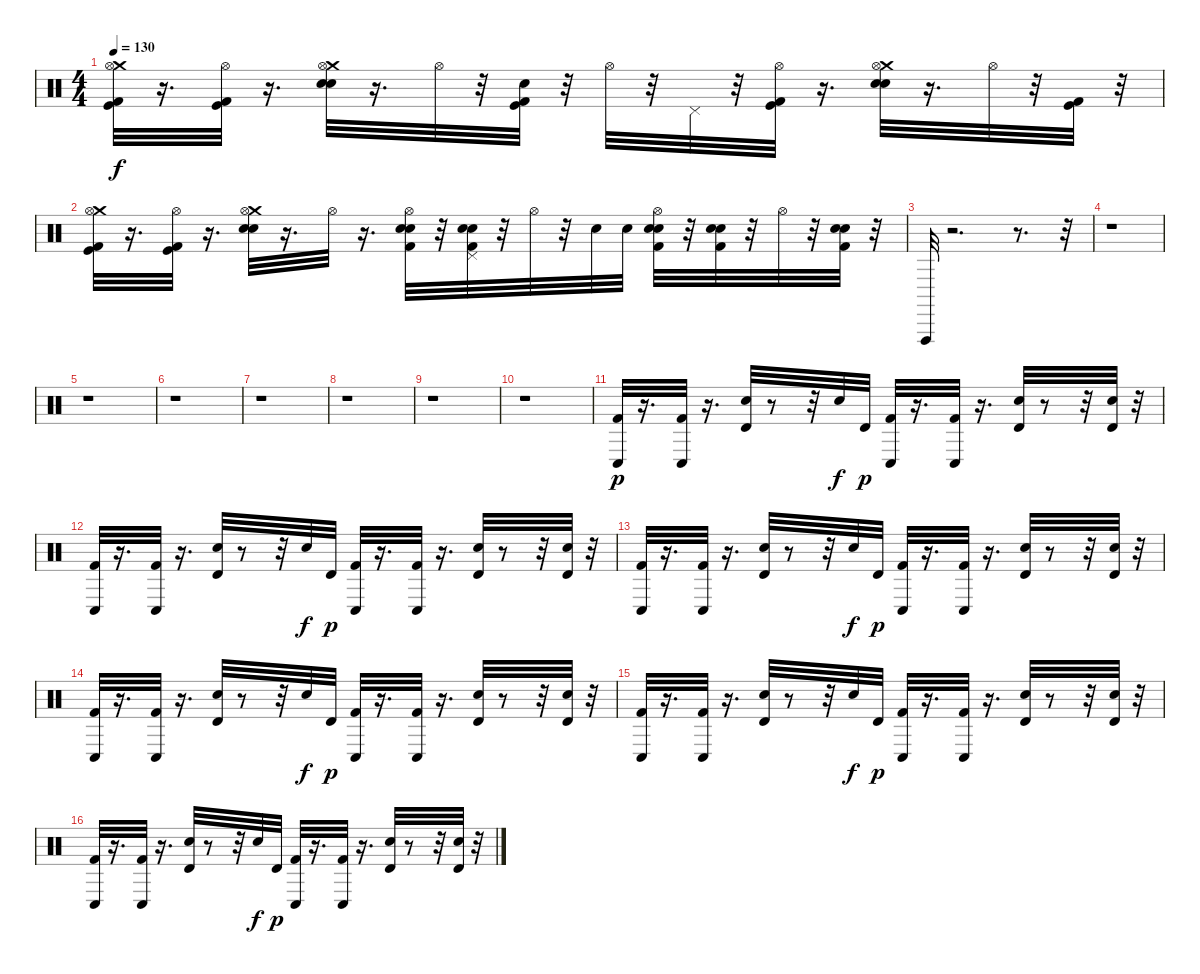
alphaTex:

\track "" {instrument percussion}
\staff {score}
\articulation defaults
\ts (4 4)
\tempo 130
\clef neutral
\ks c
("Kick (hit) 2" "Kick (hit)" "Crash medium (hit)" "Hi-Hat (open)").32{dy f} r.16{d} ("Kick (hit) 2" "Kick (hit)" "Hi-Hat (open)").32 r.16{d} ("Snare (hit) 2" "Electric Snare (hit)" "Crash medium (hit)" "Hi-Hat (open)").32 r.16{d} "Hi-Hat (open)".32 r.32 ("Kick (hit) 2" "Kick (hit)" "Electric Snare (hit)").32 r.32 "Hi-Hat (open)".32 r.32 "Pedal Hi-Hat (hit)".32 r.32 ("Kick (hit) 2" "Kick (hit)" "Hi-Hat (open)").32 r.16{d} ("Snare (hit) 2" "Electric Snare (hit)" "Crash medium (hit)" "Hi-Hat (open)").32 r.16{d} "Hi-Hat (open)".32 r.32 ("Kick (hit) 2" "Kick (hit)").32 r.32 |
("Kick (hit) 2" "Kick (hit)" "Crash medium (hit)" "Hi-Hat (open)").32 r.16{d} ("Kick (hit) 2" "Kick (hit)" "Hi-Hat (open)").32 r.16{d} ("Snare (hit) 2" "Electric Snare (hit)" "Crash medium (hit)" "Hi-Hat (open)").32 r.16{d} "Hi-Hat (open)".32 r.16{d} ("Hi-Hat (open)" "Electric Snare (hit)" "Snare (hit) 2" "Kick (hit) 2").32 r.32 ("Electric Snare (hit)" "Snare (hit) 2" "Kick (hit) 2" "Pedal Hi-Hat (hit)").32 r.32 "Hi-Hat (open)".32 r.32 "Electric Snare (hit)".32 "Electric Snare (hit)".32 ("Hi-Hat (open)" "Snare (hit) 2" "Electric Snare (hit)" "Kick (hit) 2").32 r.32 ("Electric Snare (hit)" "Snare (hit) 2" "Kick (hit) 2").32 r.32 "Hi-Hat (open)".32 r.32 ("Electric Snare (hit)" "Snare (hit) 2" "Kick (hit) 2").32 r.32 |
"Vibraslap (hit)".32 r.2{d} r.8{d} r.32 |
r.1 |
r.1 |
r.1 |
r.1 |
r.1 |
r.1 |
r.1 |
("Kick (hit) 2" "Conga low (hit)").32{dy p} r.16{d} ("Kick (hit) 2" "Conga low (hit)").32 r.16{d} ("Snare (hit) 2" "Timbale high (hit)").32 r.8 r.32 "Snare (hit) 2".32{dy f} "Timbale high (hit)".32{dy p} ("Kick (hit) 2" "Conga low (hit)").32 r.16{d} ("Kick (hit) 2" "Conga low (hit)").32 r.16{d} ("Snare (hit) 2" "Timbale high (hit)").32 r.8 r.32 ("Snare (hit) 2" "Timbale high (hit)").32 r.32 |
("Kick (hit) 2" "Conga low (hit)").32 r.16{d} ("Kick (hit) 2" "Conga low (hit)").32 r.16{d} ("Snare (hit) 2" "Timbale high (hit)").32 r.8 r.32 "Snare (hit) 2".32{dy f} "Timbale high (hit)".32{dy p} ("Kick (hit) 2" "Conga low (hit)").32 r.16{d} ("Kick (hit) 2" "Conga low (hit)").32 r.16{d} ("Snare (hit) 2" "Timbale high (hit)").32 r.8 r.32 ("Snare (hit) 2" "Timbale high (hit)").32 r.32 |
("Kick (hit) 2" "Conga low (hit)").32 r.16{d} ("Kick (hit) 2" "Conga low (hit)").32 r.16{d} ("Snare (hit) 2" "Timbale high (hit)").32 r.8 r.32 "Snare (hit) 2".32{dy f} "Timbale high (hit)".32{dy p} ("Kick (hit) 2" "Conga low (hit)").32 r.16{d} ("Kick (hit) 2" "Conga low (hit)").32 r.16{d} ("Snare (hit) 2" "Timbale high (hit)").32 r.8 r.32 ("Snare (hit) 2" "Timbale high (hit)").32 r.32 |
("Kick (hit) 2" "Conga low (hit)").32 r.16{d} ("Kick (hit) 2" "Conga low (hit)").32 r.16{d} ("Snare (hit) 2" "Timbale high (hit)").32 r.8 r.32 "Snare (hit) 2".32{dy f} "Timbale high (hit)".32{dy p} ("Kick (hit) 2" "Conga low (hit)").32 r.16{d} ("Kick (hit) 2" "Conga low (hit)").32 r.16{d} ("Snare (hit) 2" "Timbale high (hit)").32 r.8 r.32 ("Snare (hit) 2" "Timbale high (hit)").32 r.32 |
("Kick (hit) 2" "Conga low (hit)").32 r.16{d} ("Kick (hit) 2" "Conga low (hit)").32 r.16{d} ("Snare (hit) 2" "Timbale high (hit)").32 r.8 r.32 "Snare (hit) 2".32{dy f} "Timbale high (hit)".32{dy p} ("Kick (hit) 2" "Conga low (hit)").32 r.16{d} ("Kick (hit) 2" "Conga low (hit)").32 r.16{d} ("Snare (hit) 2" "Timbale high (hit)").32 r.8 r.32 ("Snare (hit) 2" "Timbale high (hit)").32 r.32 |
("Kick (hit) 2" "Conga low (hit)").32 r.16{d} ("Kick (hit) 2" "Conga low (hit)").32 r.16{d} ("Snare (hit) 2" "Timbale high (hit)").32 r.8 r.32 "Snare (hit) 2".32{dy f} "Timbale high (hit)".32{dy p} ("Kick (hit) 2" "Conga low (hit)").32 r.16{d} ("Kick (hit) 2" "Conga low (hit)").32 r.16{d} ("Snare (hit) 2" "Timbale high (hit)").32 r.8 r.32 ("Snare (hit) 2" "Timbale high (hit)").32 r.32
